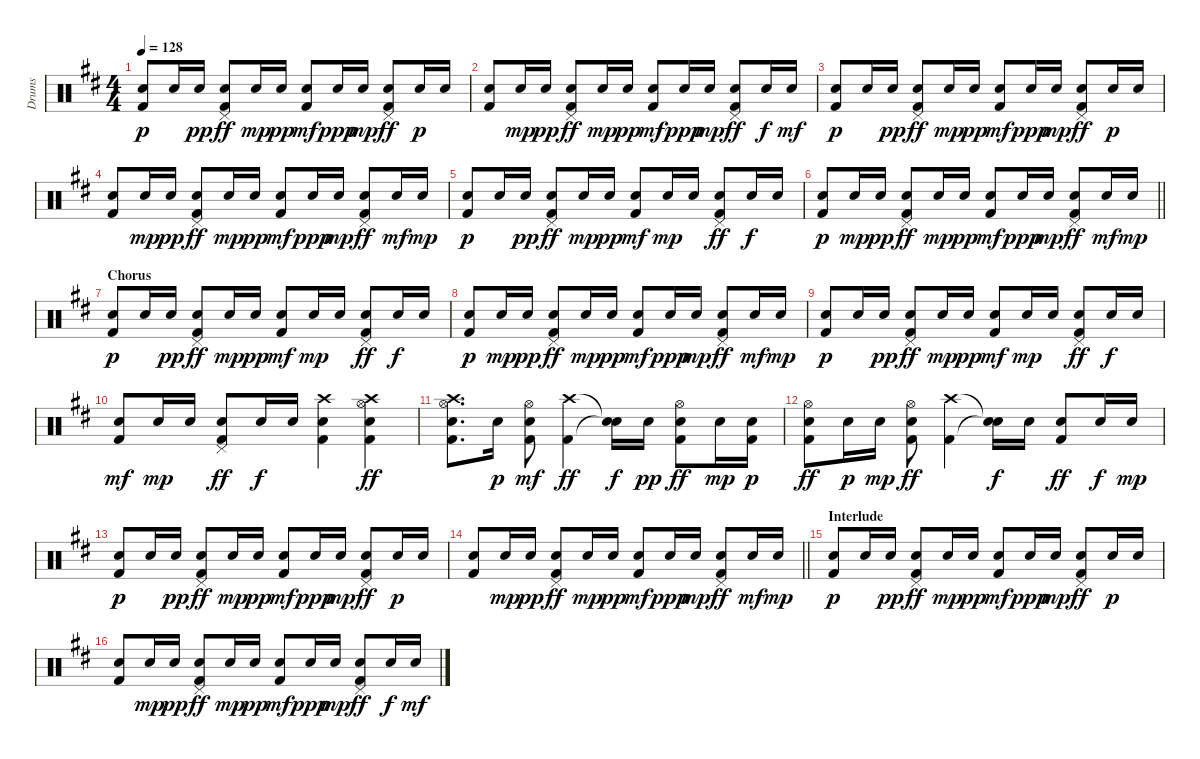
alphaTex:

\track ("Drums" "Drums") {instrument percussion}
\staff {score}
\articulation defaults
\ts (4 4)
\tempo 128
\clef neutral
\ks d
("Kick (hit) 2" "Snare (hit) 2").8{dy p} "Snare (hit) 2".16 "Snare (hit) 2".16{dy pp} ("Kick (hit) 2" "Snare (hit) 2" "Pedal Hi-Hat (hit)").8{dy ff} "Snare (hit) 2".16{dy mp} "Snare (hit) 2".16{dy pp} ("Kick (hit) 2" "Snare (hit) 2").8{dy mf} "Snare (hit) 2".16{dy ppp} "Snare (hit) 2".16{dy mp} ("Kick (hit) 2" "Snare (hit) 2" "Pedal Hi-Hat (hit)").8{dy ff} "Snare (hit) 2".16{dy p} "Snare (hit) 2".16 |
("Kick (hit) 2" "Snare (hit) 2").8 "Snare (hit) 2".16{dy mp} "Snare (hit) 2".16{dy pp} ("Kick (hit) 2" "Snare (hit) 2" "Pedal Hi-Hat (hit)").8{dy ff} "Snare (hit) 2".16{dy mp} "Snare (hit) 2".16{dy pp} ("Kick (hit) 2" "Snare (hit) 2").8{dy mf} "Snare (hit) 2".16{dy ppp} "Snare (hit) 2".16{dy mp} ("Kick (hit) 2" "Snare (hit) 2" "Pedal Hi-Hat (hit)").8{dy ff} "Snare (hit) 2".16{dy f} "Snare (hit) 2".16{dy mf} |
("Kick (hit) 2" "Snare (hit) 2").8{dy p} "Snare (hit) 2".16 "Snare (hit) 2".16{dy pp} ("Kick (hit) 2" "Snare (hit) 2" "Pedal Hi-Hat (hit)").8{dy ff} "Snare (hit) 2".16{dy mp} "Snare (hit) 2".16{dy pp} ("Kick (hit) 2" "Snare (hit) 2").8{dy mf} "Snare (hit) 2".16{dy ppp} "Snare (hit) 2".16{dy mp} ("Kick (hit) 2" "Snare (hit) 2" "Pedal Hi-Hat (hit)").8{dy ff} "Snare (hit) 2".16{dy p} "Snare (hit) 2".16 |
("Kick (hit) 2" "Snare (hit) 2").8 "Snare (hit) 2".16{dy mp} "Snare (hit) 2".16{dy pp} ("Kick (hit) 2" "Snare (hit) 2" "Pedal Hi-Hat (hit)").8{dy ff} "Snare (hit) 2".16{dy mp} "Snare (hit) 2".16{dy pp} ("Kick (hit) 2" "Snare (hit) 2").8{dy mf} "Snare (hit) 2".16{dy ppp} "Snare (hit) 2".16{dy mp} ("Kick (hit) 2" "Snare (hit) 2" "Pedal Hi-Hat (hit)").8{dy ff} "Snare (hit) 2".16{dy mf} "Snare (hit) 2".16{dy mp} |
("Kick (hit) 2" "Snare (hit) 2").8{dy p} "Snare (hit) 2".16 "Snare (hit) 2".16{dy pp} ("Kick (hit) 2" "Snare (hit) 2" "Pedal Hi-Hat (hit)").8{dy ff} "Snare (hit) 2".16{dy mp} "Snare (hit) 2".16{dy pp} ("Kick (hit) 2" "Snare (hit) 2").8{dy mf} "Snare (hit) 2".16{dy mp} "Snare (hit) 2".16 ("Kick (hit) 2" "Snare (hit) 2" "Pedal Hi-Hat (hit)").8{dy ff} "Snare (hit) 2".16{dy f} "Snare (hit) 2".16 |
\barLineRight lightlight
("Kick (hit) 2" "Snare (hit) 2").8{dy p} "Snare (hit) 2".16{dy mp} "Snare (hit) 2".16{dy pp} ("Kick (hit) 2" "Snare (hit) 2" "Pedal Hi-Hat (hit)").8{dy ff} "Snare (hit) 2".16{dy mp} "Snare (hit) 2".16{dy pp} ("Kick (hit) 2" "Snare (hit) 2").8{dy mf} "Snare (hit) 2".16{dy ppp} "Snare (hit) 2".16{dy mp} ("Kick (hit) 2" "Snare (hit) 2" "Pedal Hi-Hat (hit)").8{dy ff} "Snare (hit) 2".16{dy mf} "Snare (hit) 2".16{dy mp} |
\section ("" "Chorus")
("Kick (hit) 2" "Snare (hit) 2").8{dy p} "Snare (hit) 2".16 "Snare (hit) 2".16{dy pp} ("Kick (hit) 2" "Snare (hit) 2" "Pedal Hi-Hat (hit)").8{dy ff} "Snare (hit) 2".16{dy mp} "Snare (hit) 2".16{dy pp} ("Kick (hit) 2" "Snare (hit) 2").8{dy mf} "Snare (hit) 2".16{dy mp} "Snare (hit) 2".16 ("Kick (hit) 2" "Snare (hit) 2" "Pedal Hi-Hat (hit)").8{dy ff} "Snare (hit) 2".16{dy f} "Snare (hit) 2".16 |
("Kick (hit) 2" "Snare (hit) 2").8{dy p} "Snare (hit) 2".16{dy mp} "Snare (hit) 2".16{dy pp} ("Kick (hit) 2" "Snare (hit) 2" "Pedal Hi-Hat (hit)").8{dy ff} "Snare (hit) 2".16{dy mp} "Snare (hit) 2".16{dy pp} ("Kick (hit) 2" "Snare (hit) 2").8{dy mf} "Snare (hit) 2".16{dy ppp} "Snare (hit) 2".16{dy mp} ("Kick (hit) 2" "Snare (hit) 2" "Pedal Hi-Hat (hit)").8{dy ff} "Snare (hit) 2".16{dy mf} "Snare (hit) 2".16{dy mp} |
("Kick (hit) 2" "Snare (hit) 2").8{dy p} "Snare (hit) 2".16 "Snare (hit) 2".16{dy pp} ("Kick (hit) 2" "Snare (hit) 2" "Pedal Hi-Hat (hit)").8{dy ff} "Snare (hit) 2".16{dy mp} "Snare (hit) 2".16{dy pp} ("Kick (hit) 2" "Snare (hit) 2").8{dy mf} "Snare (hit) 2".16{dy mp} "Snare (hit) 2".16 ("Kick (hit) 2" "Snare (hit) 2" "Pedal Hi-Hat (hit)").8{dy ff} "Snare (hit) 2".16{dy f} "Snare (hit) 2".16 |
("Kick (hit) 2" "Snare (hit) 2").8{dy mf} "Snare (hit) 2".16{dy mp} "Snare (hit) 2".16 ("Kick (hit) 2" "Snare (hit) 2" "Pedal Hi-Hat (hit)").8{dy ff} "Snare (hit) 2".16{dy f} "Snare (hit) 2".16 ("Kick (hit) 2" "Snare (hit) 2" "Crash high (hit)").4 ("Kick (hit) 2" "Snare (hit) 2" "Hi-Hat (open)" "Crash high (hit)").4{dy ff} |
("Kick (hit) 2" "Snare (hit) 2" "Hi-Hat (open)" "Crash high (hit)").8{d} "Snare (hit) 2".16{dy p} ("Kick (hit) 2" "Snare (hit) 2" "Hi-Hat (open)").8{dy mf} ("Kick (hit) 2" "Crash high (hit)").4{dy ff} ("Snare (hit)"{t} "Snare (hit)"{t}).16{dy f} "Snare (hit) 2".16{dy pp} ("Kick (hit) 2" "Snare (hit) 2" "Hi-Hat (open)").8{dy ff} "Snare (hit) 2".16{dy mp} ("Kick (hit) 2" "Snare (hit) 2").16{dy p} |
("Kick (hit) 2" "Snare (hit) 2" "Hi-Hat (open)").8{dy ff} "Snare (hit) 2".16{dy p} "Snare (hit) 2".16{dy mp} ("Kick (hit) 2" "Snare (hit) 2" "Hi-Hat (open)").8{dy ff} ("Kick (hit) 2" "Crash high (hit)").4 ("Snare (hit)"{t} "Snare (hit)"{t}).16{dy f} "Snare (hit) 2".16 ("Kick (hit) 2" "Snare (hit) 2").8{dy ff} "Snare (hit) 2".16{dy f} "Snare (hit) 2".16{dy mp} |
("Kick (hit) 2" "Snare (hit) 2").8{dy p} "Snare (hit) 2".16 "Snare (hit) 2".16{dy pp} ("Kick (hit) 2" "Snare (hit) 2" "Pedal Hi-Hat (hit)").8{dy ff} "Snare (hit) 2".16{dy mp} "Snare (hit) 2".16{dy pp} ("Kick (hit) 2" "Snare (hit) 2").8{dy mf} "Snare (hit) 2".16{dy ppp} "Snare (hit) 2".16{dy mp} ("Kick (hit) 2" "Snare (hit) 2" "Pedal Hi-Hat (hit)").8{dy ff} "Snare (hit) 2".16{dy p} "Snare (hit) 2".16 |
\barLineRight lightlight
("Kick (hit) 2" "Snare (hit) 2").8 "Snare (hit) 2".16{dy mp} "Snare (hit) 2".16{dy pp} ("Kick (hit) 2" "Snare (hit) 2" "Pedal Hi-Hat (hit)").8{dy ff} "Snare (hit) 2".16{dy mp} "Snare (hit) 2".16{dy pp} ("Kick (hit) 2" "Snare (hit) 2").8{dy mf} "Snare (hit) 2".16{dy ppp} "Snare (hit) 2".16{dy mp} ("Kick (hit) 2" "Snare (hit) 2" "Pedal Hi-Hat (hit)").8{dy ff} "Snare (hit) 2".16{dy mf} "Snare (hit) 2".16{dy mp} |
\section ("" "Interlude")
("Kick (hit) 2" "Snare (hit) 2").8{dy p} "Snare (hit) 2".16 "Snare (hit) 2".16{dy pp} ("Kick (hit) 2" "Snare (hit) 2" "Pedal Hi-Hat (hit)").8{dy ff} "Snare (hit) 2".16{dy mp} "Snare (hit) 2".16{dy pp} ("Kick (hit) 2" "Snare (hit) 2").8{dy mf} "Snare (hit) 2".16{dy ppp} "Snare (hit) 2".16{dy mp} ("Kick (hit) 2" "Snare (hit) 2" "Pedal Hi-Hat (hit)").8{dy ff} "Snare (hit) 2".16{dy p} "Snare (hit) 2".16 |
("Kick (hit) 2" "Snare (hit) 2").8 "Snare (hit) 2".16{dy mp} "Snare (hit) 2".16{dy pp} ("Kick (hit) 2" "Snare (hit) 2" "Pedal Hi-Hat (hit)").8{dy ff} "Snare (hit) 2".16{dy mp} "Snare (hit) 2".16{dy pp} ("Kick (hit) 2" "Snare (hit) 2").8{dy mf} "Snare (hit) 2".16{dy ppp} "Snare (hit) 2".16{dy mp} ("Kick (hit) 2" "Snare (hit) 2" "Pedal Hi-Hat (hit)").8{dy ff} "Snare (hit) 2".16{dy f} "Snare (hit) 2".16{dy mf}
